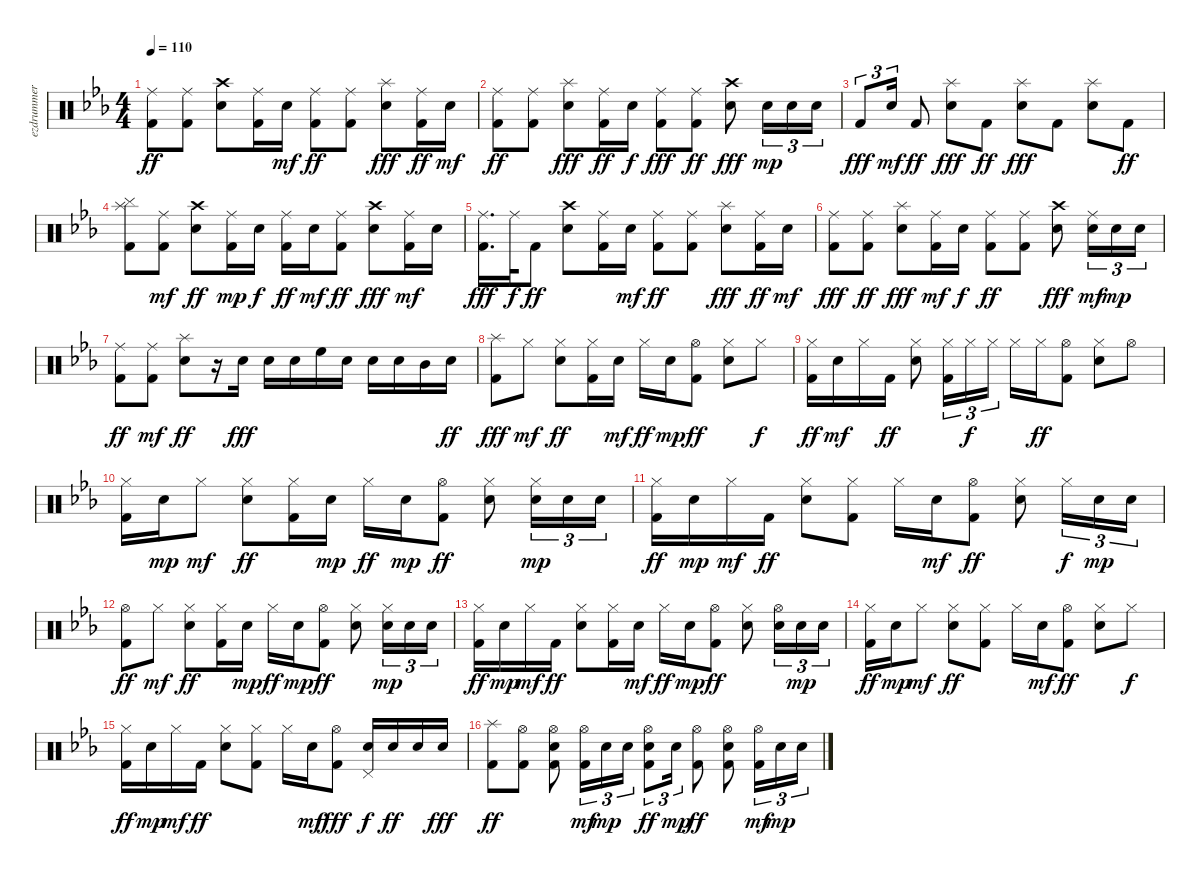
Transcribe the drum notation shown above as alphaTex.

\track ("ezdrummer 03" "ezdrummer ") {instrument percussion}
\staff {score}
\articulation defaults
\ts (4 4)
\tempo 110
\clef neutral
\ks cminor
("Kick (hit) 2" "Ride (middle)").8{dy ff} ("Kick (hit) 2" "Ride (middle)").8 ("Snare (hit) 2" "Crash high (hit)").8 ("Kick (hit) 2" "Ride (middle)").16 "Snare (hit) 2".16{dy mf} ("Kick (hit) 2" "Ride (middle)").8{dy ff} ("Kick (hit) 2" "Ride (middle)").8 ("Snare (hit) 2" "Splash (hit)").8{dy fff} ("Kick (hit) 2" "Ride (middle)").16{dy ff} "Snare (hit) 2".16{dy mf} |
("Kick (hit) 2" "Ride (middle)").8{dy ff} ("Kick (hit) 2" "Ride (middle)").8 ("Snare (hit) 2" "Splash (hit)").8{dy fff} ("Kick (hit) 2" "Ride (middle)").16{dy ff} "Snare (hit) 2".16{dy f} ("Kick (hit) 2" "Ride (middle)").8{dy fff} ("Kick (hit) 2" "Ride (middle)").8{dy ff} ("Snare (hit) 2" "Crash high (hit)").8{dy fff} "Snare (hit) 2".16{tu (3 2) dy mp} "Snare (hit) 2".16{tu (3 2)} "Snare (hit) 2".16{tu (3 2)} |
"Kick (hit) 2".8{tu (3 2) dy fff} "Snare (hit) 2".16{tu (3 2) dy mf} "Kick (hit) 2".8{dy ff} ("Snare (hit) 2" "Splash (hit)").8{dy fff} "Kick (hit) 2".8{dy ff} ("Snare (hit) 2" "Splash (hit)").8{dy fff} "Kick (hit) 2".8 ("Snare (hit) 2" "Splash (hit)").8 "Kick (hit) 2".8{dy ff} |
("Cymbal (hit)" "Kick (hit) 2" "Splash (hit)").8 ("Kick (hit) 2" "Ride (middle)").8{dy mf} ("Snare (hit) 2" "Crash high (hit)").8{dy ff} ("Kick (hit) 2" "Ride (middle)").16{dy mp} "Snare (hit) 2".16{dy f} ("Kick (hit) 2" "Ride (middle)").16{dy ff} "Snare (hit) 2".16{dy mf} ("Kick (hit) 2" "Ride (middle)").8{dy ff} ("Snare (hit) 2" "Crash high (hit)").8{dy fff} ("Kick (hit) 2" "Ride (middle)").16{dy mf} "Snare (hit) 2".16 |
("Ride (middle)" "Kick (hit) 2").16{d dy fff} "Ride (middle)".32{dy f} "Kick (hit) 2".8{dy ff} ("Snare (hit) 2" "Crash high (hit)").8 ("Kick (hit) 2" "Ride (middle)").16 "Snare (hit) 2".16{dy mf} ("Kick (hit) 2" "Ride (middle)").8{dy ff} ("Kick (hit) 2" "Ride (middle)").8 ("Snare (hit) 2" "Splash (hit)").8{dy fff} ("Kick (hit) 2" "Ride (middle)").16{dy ff} "Snare (hit) 2".16{dy mf} |
("Kick (hit) 2" "Ride (middle)").8{dy fff} ("Kick (hit) 2" "Ride (middle)").8{dy ff} ("Snare (hit) 2" "Splash (hit)").8{dy fff} ("Kick (hit) 2" "Ride (middle)").16{dy mf} "Snare (hit) 2".16{dy f} ("Kick (hit) 2" "Ride (middle)").8{dy ff} ("Kick (hit) 2" "Ride (middle)").8 ("Snare (hit) 2" "Crash high (hit)").8{dy fff} ("Snare (hit) 2" "Ride (middle)").16{tu (3 2) dy mf} "Snare (hit) 2".16{tu (3 2) dy mp} "Snare (hit) 2".16{tu (3 2)} |
("Kick (hit) 2" "Ride (middle)").8{dy ff} ("Kick (hit) 2" "Ride (middle)").8{dy mf} ("Snare (hit) 2" "Splash (hit)").8{dy ff} r.16 "Snare (hit) 2".16{dy fff} "Snare (hit) 2".16 "Snare (hit) 2".16 "High Floor Tom (hit)".16 "Snare (hit) 2".16 "Snare (hit) 2".16 "Snare (hit) 2".16 "Mid Tom (hit)".16 "Snare (hit) 2".16{dy ff} |
("Kick (hit) 2" "Splash (hit)").8{dy fff} "Hi-Hat (closed)".8{dy mf} ("Snare (hit) 2" "Hi-Hat (closed)").8{dy ff} ("Kick (hit) 2" "Hi-Hat (closed)").16 "Snare (hit) 2".16{dy mf} "Hi-Hat (closed)".16{dy ff} "Snare (hit) 2".16{dy mp} ("Kick (hit) 2" "Hi-Hat (open)").8{dy ff} ("Snare (hit) 2" "Hi-Hat (closed)").8 "Hi-Hat (closed)".8{dy f} |
("Kick (hit) 2" "Hi-Hat (closed)").16{dy ff} "Snare (hit) 2".16{dy mf} "Hi-Hat (closed)".16 "Kick (hit) 2".16{dy ff} ("Snare (hit) 2" "Hi-Hat (closed)").8 ("Kick (hit) 2" "Hi-Hat (closed)").16{tu (3 2)} "Hi-Hat (closed)".16{tu (3 2) dy f} "Hi-Hat (closed)".16{tu (3 2)} "Hi-Hat (closed)".16 "Hi-Hat (closed)".16{dy ff} ("Kick (hit) 2" "Hi-Hat (open)").8 ("Snare (hit) 2" "Hi-Hat (closed)").8 "Hi-Hat (open)".8 |
("Kick (hit) 2" "Hi-Hat (closed)").16 "Snare (hit) 2".16{dy mp} "Hi-Hat (closed)".8{dy mf} ("Snare (hit) 2" "Hi-Hat (closed)").8{dy ff} ("Kick (hit) 2" "Hi-Hat (closed)").16 "Snare (hit) 2".16{dy mp} "Hi-Hat (closed)".16{dy ff} "Snare (hit) 2".16{dy mp} ("Kick (hit) 2" "Hi-Hat (open)").8{dy ff} ("Snare (hit) 2" "Hi-Hat (closed)").8 ("Snare (hit) 2" "Hi-Hat (closed)").16{tu (3 2) dy mp} "Snare (hit) 2".16{tu (3 2)} "Snare (hit) 2".16{tu (3 2)} |
("Kick (hit) 2" "Hi-Hat (closed)").16{dy ff} "Snare (hit) 2".16{dy mp} "Hi-Hat (closed)".16{dy mf} "Kick (hit) 2".16{dy ff} ("Snare (hit) 2" "Hi-Hat (closed)").8 ("Kick (hit) 2" "Hi-Hat (closed)").8 "Hi-Hat (closed)".16 "Snare (hit) 2".16{dy mf} ("Kick (hit) 2" "Hi-Hat (open)").8{dy ff} ("Snare (hit) 2" "Hi-Hat (closed)").8 "Hi-Hat (closed)".16{tu (3 2) dy f} "Snare (hit) 2".16{tu (3 2) dy mp} "Snare (hit) 2".16{tu (3 2)} |
("Kick (hit) 2" "Hi-Hat (open)").8{dy ff} "Hi-Hat (closed)".8{dy mf} ("Snare (hit) 2" "Hi-Hat (closed)").8{dy ff} ("Kick (hit) 2" "Hi-Hat (closed)").16 "Snare (hit) 2".16{dy mp} "Hi-Hat (closed)".16{dy ff} "Snare (hit) 2".16{dy mp} ("Kick (hit) 2" "Hi-Hat (open)").8{dy ff} ("Snare (hit) 2" "Hi-Hat (closed)").8 ("Snare (hit) 2" "Hi-Hat (closed)").16{tu (3 2) dy mp} "Snare (hit) 2".16{tu (3 2)} "Snare (hit) 2".16{tu (3 2)} |
("Kick (hit) 2" "Hi-Hat (closed)").16{dy ff} "Snare (hit) 2".16{dy mp} "Hi-Hat (closed)".16{dy mf} "Kick (hit) 2".16{dy ff} ("Snare (hit) 2" "Hi-Hat (closed)").8 ("Kick (hit) 2" "Hi-Hat (closed)").16 "Snare (hit) 2".16{dy mf} "Hi-Hat (closed)".16{dy ff} "Snare (hit) 2".16{dy mp} ("Kick (hit) 2" "Hi-Hat (open)").8{dy ff} ("Snare (hit) 2" "Hi-Hat (closed)").8 ("Snare (hit) 2" "Hi-Hat (open)").16{tu (3 2)} "Snare (hit) 2".16{tu (3 2) dy mp} "Snare (hit) 2".16{tu (3 2)} |
("Kick (hit) 2" "Hi-Hat (closed)").16{dy ff} "Snare (hit) 2".16{dy mp} "Hi-Hat (closed)".8{dy mf} ("Snare (hit) 2" "Hi-Hat (closed)").8{dy ff} ("Kick (hit) 2" "Hi-Hat (closed)").8 "Hi-Hat (closed)".16 "Snare (hit) 2".16{dy mf} ("Kick (hit) 2" "Hi-Hat (open)").8{dy ff} ("Snare (hit) 2" "Hi-Hat (closed)").8 "Hi-Hat (closed)".8{dy f} |
("Kick (hit) 2" "Hi-Hat (closed)").16{dy ff} "Snare (hit) 2".16{dy mp} "Hi-Hat (closed)".16{dy mf} "Kick (hit) 2".16{dy ff} ("Snare (hit) 2" "Hi-Hat (closed)").8 ("Kick (hit) 2" "Hi-Hat (closed)").8 "Hi-Hat (closed)".16 "Snare (hit) 2".16{dy mf} ("Kick (hit) 2" "Hi-Hat (open)").8{dy fff} ("Snare (hit) 2" "Pedal Hi-Hat (hit)").16{dy f} "Snare (hit) 2".16{dy ff} "Snare (hit) 2".16 "Snare (hit) 2".16{dy fff} |
("Kick (hit) 2" "Splash (hit)").8{dy ff} ("Kick (hit) 2" "Hi-Hat (open)").8 ("Kick (hit) 2" "Snare (hit) 2" "Hi-Hat (open)").8 ("Kick (hit) 2" "Hi-Hat (open)").16{tu (3 2) dy mf} "Snare (hit) 2".16{tu (3 2) dy mp} "Snare (hit) 2".16{tu (3 2)} ("Kick (hit) 2" "Snare (hit) 2" "Hi-Hat (open)").8{tu (3 2) dy ff} "Snare (hit) 2".16{tu (3 2) dy mp} ("Kick (hit) 2" "Hi-Hat (open)").8{dy ff} ("Kick (hit) 2" "Snare (hit) 2" "Hi-Hat (open)").8 ("Kick (hit) 2" "Hi-Hat (open)").16{tu (3 2) dy mf} "Snare (hit) 2".16{tu (3 2) dy mp} "Snare (hit) 2".16{tu (3 2)}
